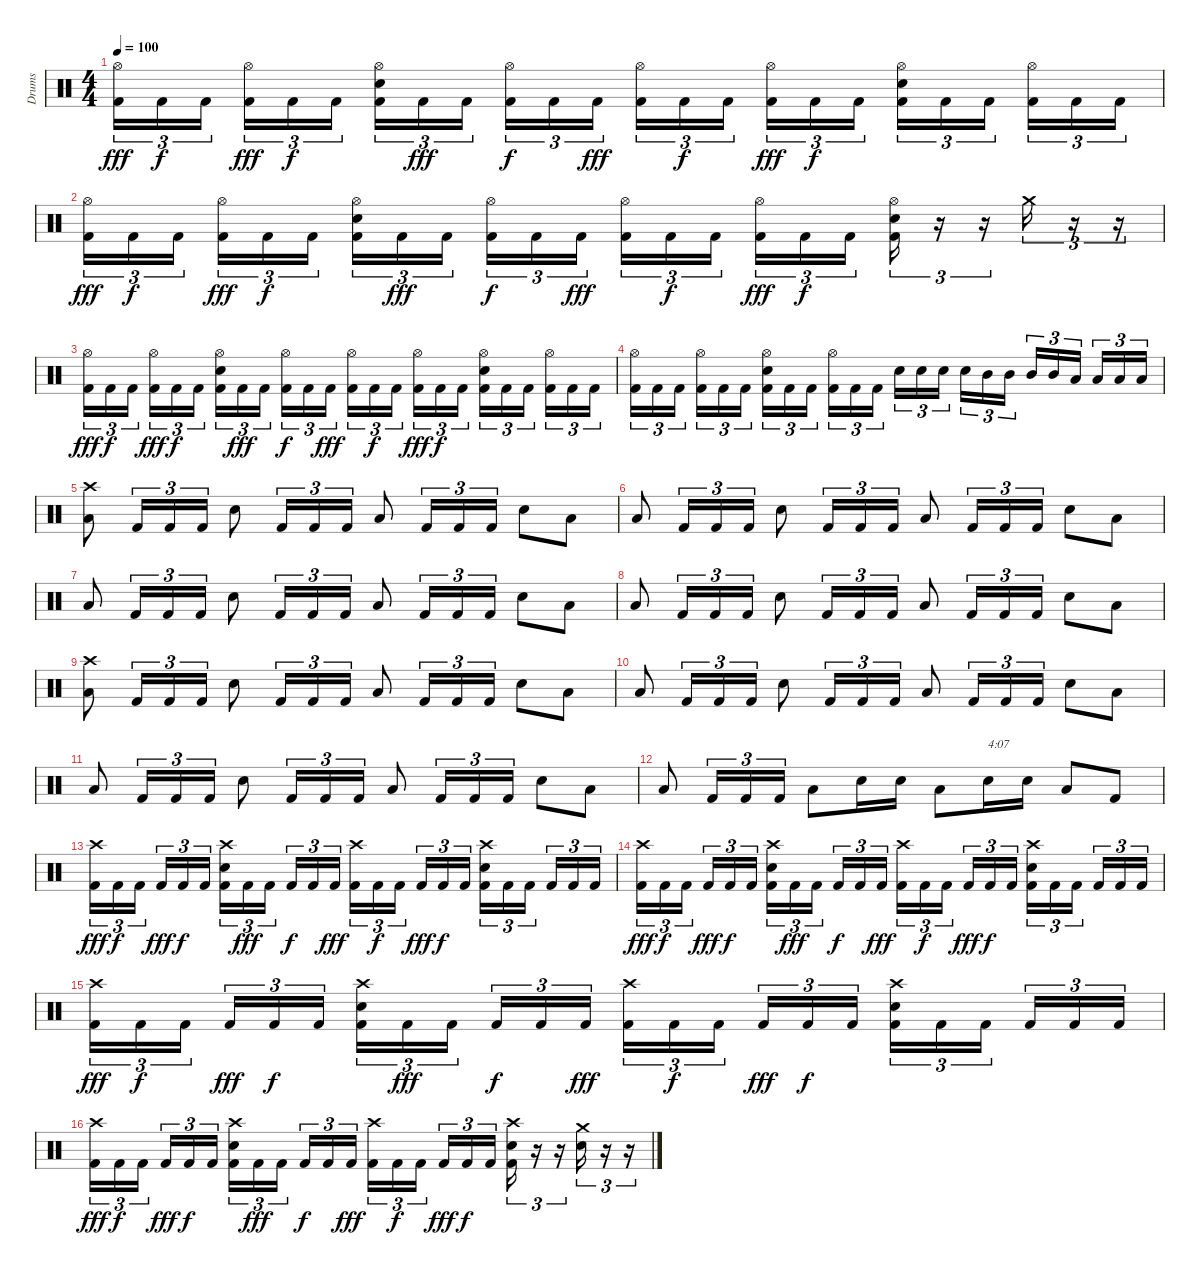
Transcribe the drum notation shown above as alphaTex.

\track ("Drums" "Drums") {instrument percussion}
\staff {score}
\articulation defaults
\ts (4 4)
\tempo 100
\clef neutral
\ks c
("Hi-Hat (open)" "Kick (hit) 2").16{tu (3 2) dy fff} "Kick (hit) 2".16{tu (3 2) dy f} "Kick (hit) 2".16{tu (3 2)} ("Hi-Hat (open)" "Kick (hit) 2").16{tu (3 2) dy fff} "Kick (hit) 2".16{tu (3 2) dy f} "Kick (hit) 2".16{tu (3 2)} ("Hi-Hat (open)" "Electric Snare (hit)" "Kick (hit) 2").16{tu (3 2)} "Kick (hit) 2".16{tu (3 2) dy fff} "Kick (hit) 2".16{tu (3 2)} ("Hi-Hat (open)" "Kick (hit) 2").16{tu (3 2) dy f} "Kick (hit) 2".16{tu (3 2)} "Kick (hit) 2".16{tu (3 2) dy fff} ("Hi-Hat (open)" "Kick (hit) 2").16{tu (3 2)} "Kick (hit) 2".16{tu (3 2) dy f} "Kick (hit) 2".16{tu (3 2)} ("Hi-Hat (open)" "Kick (hit) 2").16{tu (3 2) dy fff} "Kick (hit) 2".16{tu (3 2) dy f} "Kick (hit) 2".16{tu (3 2)} ("Hi-Hat (open)" "Electric Snare (hit)" "Kick (hit) 2").16{tu (3 2)} "Kick (hit) 2".16{tu (3 2)} "Kick (hit) 2".16{tu (3 2)} ("Hi-Hat (open)" "Kick (hit) 2").16{tu (3 2)} "Kick (hit) 2".16{tu (3 2)} "Kick (hit) 2".16{tu (3 2)} |
("Hi-Hat (open)" "Kick (hit) 2").16{tu (3 2) dy fff} "Kick (hit) 2".16{tu (3 2) dy f} "Kick (hit) 2".16{tu (3 2)} ("Hi-Hat (open)" "Kick (hit) 2").16{tu (3 2) dy fff} "Kick (hit) 2".16{tu (3 2) dy f} "Kick (hit) 2".16{tu (3 2)} ("Hi-Hat (open)" "Electric Snare (hit)" "Kick (hit) 2").16{tu (3 2)} "Kick (hit) 2".16{tu (3 2) dy fff} "Kick (hit) 2".16{tu (3 2)} ("Hi-Hat (open)" "Kick (hit) 2").16{tu (3 2) dy f} "Kick (hit) 2".16{tu (3 2)} "Kick (hit) 2".16{tu (3 2) dy fff} ("Hi-Hat (open)" "Kick (hit) 2").16{tu (3 2)} "Kick (hit) 2".16{tu (3 2) dy f} "Kick (hit) 2".16{tu (3 2)} ("Hi-Hat (open)" "Kick (hit) 2").16{tu (3 2) dy fff} "Kick (hit) 2".16{tu (3 2) dy f} "Kick (hit) 2".16{tu (3 2)} ("Hi-Hat (open)" "Electric Snare (hit)" "Kick (hit) 2").16{tu (3 2)} r.16{tu (3 2)} r.16{tu (3 2)} "Crash medium (hit)".16{tu (3 2)} r.16{tu (3 2)} r.16{tu (3 2)} |
("Hi-Hat (open)" "Kick (hit) 2").16{tu (3 2) dy fff} "Kick (hit) 2".16{tu (3 2) dy f} "Kick (hit) 2".16{tu (3 2)} ("Hi-Hat (open)" "Kick (hit) 2").16{tu (3 2) dy fff} "Kick (hit) 2".16{tu (3 2) dy f} "Kick (hit) 2".16{tu (3 2)} ("Hi-Hat (open)" "Electric Snare (hit)" "Kick (hit) 2").16{tu (3 2)} "Kick (hit) 2".16{tu (3 2) dy fff} "Kick (hit) 2".16{tu (3 2)} ("Hi-Hat (open)" "Kick (hit) 2").16{tu (3 2) dy f} "Kick (hit) 2".16{tu (3 2)} "Kick (hit) 2".16{tu (3 2) dy fff} ("Hi-Hat (open)" "Kick (hit) 2").16{tu (3 2)} "Kick (hit) 2".16{tu (3 2) dy f} "Kick (hit) 2".16{tu (3 2)} ("Hi-Hat (open)" "Kick (hit) 2").16{tu (3 2) dy fff} "Kick (hit) 2".16{tu (3 2) dy f} "Kick (hit) 2".16{tu (3 2)} ("Hi-Hat (open)" "Electric Snare (hit)" "Kick (hit) 2").16{tu (3 2)} "Kick (hit) 2".16{tu (3 2)} "Kick (hit) 2".16{tu (3 2)} ("Hi-Hat (open)" "Kick (hit) 2").16{tu (3 2)} "Kick (hit) 2".16{tu (3 2)} "Kick (hit) 2".16{tu (3 2)} |
("Hi-Hat (open)" "Kick (hit) 2").16{tu (3 2)} "Kick (hit) 2".16{tu (3 2)} "Kick (hit) 2".16{tu (3 2)} ("Hi-Hat (open)" "Kick (hit) 2").16{tu (3 2)} "Kick (hit) 2".16{tu (3 2)} "Kick (hit) 2".16{tu (3 2)} ("Hi-Hat (open)" "Electric Snare (hit)" "Kick (hit) 2").16{tu (3 2)} "Kick (hit) 2".16{tu (3 2)} "Kick (hit) 2".16{tu (3 2)} ("Hi-Hat (open)" "Kick (hit) 2").16{tu (3 2)} "Kick (hit) 2".16{tu (3 2)} "Kick (hit) 2".16{tu (3 2)} "Electric Snare (hit)".16{tu (3 2)} "Electric Snare (hit)".16{tu (3 2)} "Electric Snare (hit)".16{tu (3 2)} "Electric Snare (hit)".16{tu (3 2)} "Mid Tom (hit)".16{tu (3 2)} "Mid Tom (hit)".16{tu (3 2)} "Mid Tom (hit)".16{tu (3 2)} "Mid Tom (hit)".16{tu (3 2)} "Low Tom (hit)".16{tu (3 2)} "Low Tom (hit)".16{tu (3 2)} "Low Tom (hit)".16{tu (3 2)} "Low Tom (hit)".16{tu (3 2)} |
("Crash high (hit)" "Low Tom (hit)").8 "Kick (hit) 2".16{tu (3 2)} "Kick (hit) 2".16{tu (3 2)} "Kick (hit) 2".16{tu (3 2)} "Electric Snare (hit)".8 "Kick (hit) 2".16{tu (3 2)} "Kick (hit) 2".16{tu (3 2)} "Kick (hit) 2".16{tu (3 2)} "Low Tom (hit)".8 "Kick (hit) 2".16{tu (3 2)} "Kick (hit) 2".16{tu (3 2)} "Kick (hit) 2".16{tu (3 2)} "Electric Snare (hit)".8 "Low Tom (hit)".8 |
"Low Tom (hit)".8 "Kick (hit) 2".16{tu (3 2)} "Kick (hit) 2".16{tu (3 2)} "Kick (hit) 2".16{tu (3 2)} "Electric Snare (hit)".8 "Kick (hit) 2".16{tu (3 2)} "Kick (hit) 2".16{tu (3 2)} "Kick (hit) 2".16{tu (3 2)} "Low Tom (hit)".8 "Kick (hit) 2".16{tu (3 2)} "Kick (hit) 2".16{tu (3 2)} "Kick (hit) 2".16{tu (3 2)} "Electric Snare (hit)".8 "Low Tom (hit)".8 |
"Low Tom (hit)".8 "Kick (hit) 2".16{tu (3 2)} "Kick (hit) 2".16{tu (3 2)} "Kick (hit) 2".16{tu (3 2)} "Electric Snare (hit)".8 "Kick (hit) 2".16{tu (3 2)} "Kick (hit) 2".16{tu (3 2)} "Kick (hit) 2".16{tu (3 2)} "Low Tom (hit)".8 "Kick (hit) 2".16{tu (3 2)} "Kick (hit) 2".16{tu (3 2)} "Kick (hit) 2".16{tu (3 2)} "Electric Snare (hit)".8 "Low Tom (hit)".8 |
"Low Tom (hit)".8 "Kick (hit) 2".16{tu (3 2)} "Kick (hit) 2".16{tu (3 2)} "Kick (hit) 2".16{tu (3 2)} "Electric Snare (hit)".8 "Kick (hit) 2".16{tu (3 2)} "Kick (hit) 2".16{tu (3 2)} "Kick (hit) 2".16{tu (3 2)} "Low Tom (hit)".8 "Kick (hit) 2".16{tu (3 2)} "Kick (hit) 2".16{tu (3 2)} "Kick (hit) 2".16{tu (3 2)} "Electric Snare (hit)".8 "Low Tom (hit)".8 |
("Crash high (hit)" "Low Tom (hit)").8 "Kick (hit) 2".16{tu (3 2)} "Kick (hit) 2".16{tu (3 2)} "Kick (hit) 2".16{tu (3 2)} "Electric Snare (hit)".8 "Kick (hit) 2".16{tu (3 2)} "Kick (hit) 2".16{tu (3 2)} "Kick (hit) 2".16{tu (3 2)} "Low Tom (hit)".8 "Kick (hit) 2".16{tu (3 2)} "Kick (hit) 2".16{tu (3 2)} "Kick (hit) 2".16{tu (3 2)} "Electric Snare (hit)".8 "Low Tom (hit)".8 |
"Low Tom (hit)".8 "Kick (hit) 2".16{tu (3 2)} "Kick (hit) 2".16{tu (3 2)} "Kick (hit) 2".16{tu (3 2)} "Electric Snare (hit)".8 "Kick (hit) 2".16{tu (3 2)} "Kick (hit) 2".16{tu (3 2)} "Kick (hit) 2".16{tu (3 2)} "Low Tom (hit)".8 "Kick (hit) 2".16{tu (3 2)} "Kick (hit) 2".16{tu (3 2)} "Kick (hit) 2".16{tu (3 2)} "Electric Snare (hit)".8 "Low Tom (hit)".8 |
"Low Tom (hit)".8 "Kick (hit) 2".16{tu (3 2)} "Kick (hit) 2".16{tu (3 2)} "Kick (hit) 2".16{tu (3 2)} "Electric Snare (hit)".8 "Kick (hit) 2".16{tu (3 2)} "Kick (hit) 2".16{tu (3 2)} "Kick (hit) 2".16{tu (3 2)} "Low Tom (hit)".8 "Kick (hit) 2".16{tu (3 2)} "Kick (hit) 2".16{tu (3 2)} "Kick (hit) 2".16{tu (3 2)} "Electric Snare (hit)".8 "Low Tom (hit)".8 |
"Low Tom (hit)".8 "Kick (hit) 2".16{tu (3 2)} "Kick (hit) 2".16{tu (3 2)} "Kick (hit) 2".16{tu (3 2)} "Low Tom (hit)".8 "Electric Snare (hit)".16 "Electric Snare (hit)".16 "Low Tom (hit)".8 "Electric Snare (hit)".16{txt "4:07"} "Electric Snare (hit)".16 "Low Tom (hit)".8 "Kick (hit) 2".8 |
("Crash high (hit)" "Kick (hit) 2").16{tu (3 2) dy fff} "Kick (hit) 2".16{tu (3 2) dy f} "Kick (hit) 2".16{tu (3 2)} "Kick (hit) 2".16{tu (3 2) dy fff} "Kick (hit) 2".16{tu (3 2) dy f} "Kick (hit) 2".16{tu (3 2)} ("Crash high (hit)" "Electric Snare (hit)" "Kick (hit) 2").16{tu (3 2)} "Kick (hit) 2".16{tu (3 2) dy fff} "Kick (hit) 2".16{tu (3 2)} "Kick (hit) 2".16{tu (3 2) dy f} "Kick (hit) 2".16{tu (3 2)} "Kick (hit) 2".16{tu (3 2) dy fff} ("Crash high (hit)" "Kick (hit) 2").16{tu (3 2)} "Kick (hit) 2".16{tu (3 2) dy f} "Kick (hit) 2".16{tu (3 2)} "Kick (hit) 2".16{tu (3 2) dy fff} "Kick (hit) 2".16{tu (3 2) dy f} "Kick (hit) 2".16{tu (3 2)} ("Crash high (hit)" "Electric Snare (hit)" "Kick (hit) 2").16{tu (3 2)} "Kick (hit) 2".16{tu (3 2)} "Kick (hit) 2".16{tu (3 2)} "Kick (hit) 2".16{tu (3 2)} "Kick (hit) 2".16{tu (3 2)} "Kick (hit) 2".16{tu (3 2)} |
("Crash high (hit)" "Kick (hit) 2").16{tu (3 2) dy fff} "Kick (hit) 2".16{tu (3 2) dy f} "Kick (hit) 2".16{tu (3 2)} "Kick (hit) 2".16{tu (3 2) dy fff} "Kick (hit) 2".16{tu (3 2) dy f} "Kick (hit) 2".16{tu (3 2)} ("Crash high (hit)" "Electric Snare (hit)" "Kick (hit) 2").16{tu (3 2)} "Kick (hit) 2".16{tu (3 2) dy fff} "Kick (hit) 2".16{tu (3 2)} "Kick (hit) 2".16{tu (3 2) dy f} "Kick (hit) 2".16{tu (3 2)} "Kick (hit) 2".16{tu (3 2) dy fff} ("Crash high (hit)" "Kick (hit) 2").16{tu (3 2)} "Kick (hit) 2".16{tu (3 2) dy f} "Kick (hit) 2".16{tu (3 2)} "Kick (hit) 2".16{tu (3 2) dy fff} "Kick (hit) 2".16{tu (3 2) dy f} "Kick (hit) 2".16{tu (3 2)} ("Crash high (hit)" "Electric Snare (hit)" "Kick (hit) 2").16{tu (3 2)} "Kick (hit) 2".16{tu (3 2)} "Kick (hit) 2".16{tu (3 2)} "Kick (hit) 2".16{tu (3 2)} "Kick (hit) 2".16{tu (3 2)} "Kick (hit) 2".16{tu (3 2)} |
("Crash high (hit)" "Kick (hit) 2").16{tu (3 2) dy fff} "Kick (hit) 2".16{tu (3 2) dy f} "Kick (hit) 2".16{tu (3 2)} "Kick (hit) 2".16{tu (3 2) dy fff} "Kick (hit) 2".16{tu (3 2) dy f} "Kick (hit) 2".16{tu (3 2)} ("Crash high (hit)" "Electric Snare (hit)" "Kick (hit) 2").16{tu (3 2)} "Kick (hit) 2".16{tu (3 2) dy fff} "Kick (hit) 2".16{tu (3 2)} "Kick (hit) 2".16{tu (3 2) dy f} "Kick (hit) 2".16{tu (3 2)} "Kick (hit) 2".16{tu (3 2) dy fff} ("Crash high (hit)" "Kick (hit) 2").16{tu (3 2)} "Kick (hit) 2".16{tu (3 2) dy f} "Kick (hit) 2".16{tu (3 2)} "Kick (hit) 2".16{tu (3 2) dy fff} "Kick (hit) 2".16{tu (3 2) dy f} "Kick (hit) 2".16{tu (3 2)} ("Crash high (hit)" "Electric Snare (hit)" "Kick (hit) 2").16{tu (3 2)} "Kick (hit) 2".16{tu (3 2)} "Kick (hit) 2".16{tu (3 2)} "Kick (hit) 2".16{tu (3 2)} "Kick (hit) 2".16{tu (3 2)} "Kick (hit) 2".16{tu (3 2)} |
("Crash high (hit)" "Kick (hit) 2").16{tu (3 2) dy fff} "Kick (hit) 2".16{tu (3 2) dy f} "Kick (hit) 2".16{tu (3 2)} "Kick (hit) 2".16{tu (3 2) dy fff} "Kick (hit) 2".16{tu (3 2) dy f} "Kick (hit) 2".16{tu (3 2)} ("Crash high (hit)" "Electric Snare (hit)" "Kick (hit) 2").16{tu (3 2)} "Kick (hit) 2".16{tu (3 2) dy fff} "Kick (hit) 2".16{tu (3 2)} "Kick (hit) 2".16{tu (3 2) dy f} "Kick (hit) 2".16{tu (3 2)} "Kick (hit) 2".16{tu (3 2) dy fff} ("Crash high (hit)" "Kick (hit) 2").16{tu (3 2)} "Kick (hit) 2".16{tu (3 2) dy f} "Kick (hit) 2".16{tu (3 2)} "Kick (hit) 2".16{tu (3 2) dy fff} "Kick (hit) 2".16{tu (3 2) dy f} "Kick (hit) 2".16{tu (3 2)} ("Crash high (hit)" "Electric Snare (hit)" "Kick (hit) 2").16{tu (3 2)} r.16{tu (3 2)} r.16{tu (3 2)} ("Crash medium (hit)" "Electric Snare (hit)").16{tu (3 2)} r.16{tu (3 2)} r.16{tu (3 2)}
